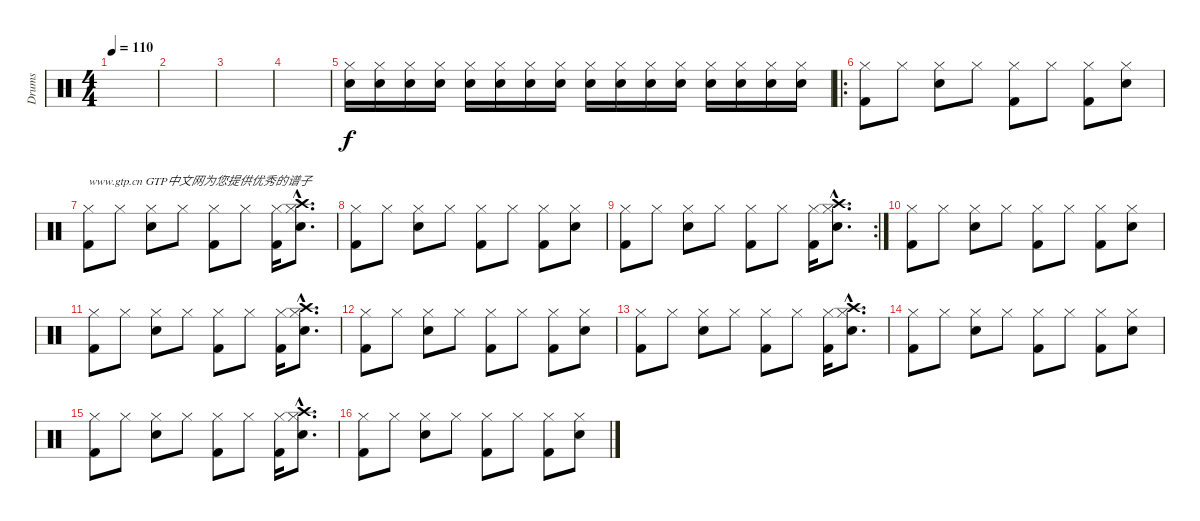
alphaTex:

\track ("Drums" "Drums") {instrument percussion}
\staff {score}
\articulation defaults
\ts (4 4)
\tempo 110
\clef neutral
\ks c
|
|
|
|
("Electric Snare (hit)" "Hi-Hat (closed)").16 ("Electric Snare (hit)" "Hi-Hat (closed)").16 ("Electric Snare (hit)" "Hi-Hat (closed)").16 ("Electric Snare (hit)" "Hi-Hat (closed)").16 ("Electric Snare (hit)" "Hi-Hat (closed)").16 ("Electric Snare (hit)" "Hi-Hat (closed)").16 ("Electric Snare (hit)" "Hi-Hat (closed)").16 ("Electric Snare (hit)" "Hi-Hat (closed)").16 ("Electric Snare (hit)" "Hi-Hat (closed)").16 ("Electric Snare (hit)" "Hi-Hat (closed)").16 ("Electric Snare (hit)" "Hi-Hat (closed)").16 ("Electric Snare (hit)" "Hi-Hat (closed)").16 ("Electric Snare (hit)" "Hi-Hat (closed)").16 ("Electric Snare (hit)" "Hi-Hat (closed)").16 ("Electric Snare (hit)" "Hi-Hat (closed)").16 ("Electric Snare (hit)" "Hi-Hat (closed)").16 |
\ro
("Kick (hit) 2" "Hi-Hat (closed)").8 "Hi-Hat (closed)".8 ("Electric Snare (hit)" "Hi-Hat (closed)").8 "Hi-Hat (closed)".8 ("Kick (hit) 2" "Hi-Hat (closed)").8 "Hi-Hat (closed)".8 ("Kick (hit) 2" "Hi-Hat (closed)").8 ("Electric Snare (hit)" "Hi-Hat (closed)").8 |
("Kick (hit) 2" "Hi-Hat (closed)").8{txt "www.gtp.cn GTP中文网为您提供优秀的谱子"} "Hi-Hat (closed)".8 ("Snare (hit) 2" "Hi-Hat (closed)").8 "Hi-Hat (closed)".8 ("Kick (hit) 2" "Hi-Hat (closed)").8 "Hi-Hat (closed)".8 ("Kick (hit) 2" "Hi-Hat (closed)").16 ("Snare (hit) 2"{hac} "Hi-Hat (closed)"{hac} "Crash high (hit)"{hac}).8{d} |
("Kick (hit) 2" "Hi-Hat (closed)").8 "Hi-Hat (closed)".8 ("Snare (hit) 2" "Hi-Hat (closed)").8 "Hi-Hat (closed)".8 ("Kick (hit) 2" "Hi-Hat (closed)").8 "Hi-Hat (closed)".8 ("Kick (hit) 2" "Hi-Hat (closed)").8 ("Snare (hit) 2" "Hi-Hat (closed)").8 |
\rc 2
("Kick (hit) 2" "Hi-Hat (closed)").8 "Hi-Hat (closed)".8 ("Snare (hit) 2" "Hi-Hat (closed)").8 "Hi-Hat (closed)".8 ("Kick (hit) 2" "Hi-Hat (closed)").8 "Hi-Hat (closed)".8 ("Kick (hit) 2" "Hi-Hat (closed)").16 ("Snare (hit) 2"{hac} "Hi-Hat (closed)"{hac} "Crash high (hit)"{hac}).8{d} |
("Kick (hit) 2" "Hi-Hat (closed)").8 "Hi-Hat (closed)".8 ("Snare (hit) 2" "Hi-Hat (closed)").8 "Hi-Hat (closed)".8 ("Kick (hit) 2" "Hi-Hat (closed)").8 "Hi-Hat (closed)".8 ("Kick (hit) 2" "Hi-Hat (closed)").8 ("Snare (hit) 2" "Hi-Hat (closed)").8 |
("Kick (hit) 2" "Hi-Hat (closed)").8 "Hi-Hat (closed)".8 ("Snare (hit) 2" "Hi-Hat (closed)").8 "Hi-Hat (closed)".8 ("Kick (hit) 2" "Hi-Hat (closed)").8 "Hi-Hat (closed)".8 ("Kick (hit) 2" "Hi-Hat (closed)").16 ("Snare (hit) 2"{hac} "Hi-Hat (closed)"{hac} "Crash high (hit)"{hac}).8{d} |
("Kick (hit) 2" "Hi-Hat (closed)").8 "Hi-Hat (closed)".8 ("Snare (hit) 2" "Hi-Hat (closed)").8 "Hi-Hat (closed)".8 ("Kick (hit) 2" "Hi-Hat (closed)").8 "Hi-Hat (closed)".8 ("Kick (hit) 2" "Hi-Hat (closed)").8 ("Snare (hit) 2" "Hi-Hat (closed)").8 |
("Kick (hit) 2" "Hi-Hat (closed)").8 "Hi-Hat (closed)".8 ("Snare (hit) 2" "Hi-Hat (closed)").8 "Hi-Hat (closed)".8 ("Kick (hit) 2" "Hi-Hat (closed)").8 "Hi-Hat (closed)".8 ("Kick (hit) 2" "Hi-Hat (closed)").16 ("Snare (hit) 2"{hac} "Hi-Hat (closed)"{hac} "Crash high (hit)"{hac}).8{d} |
("Kick (hit) 2" "Hi-Hat (closed)").8 "Hi-Hat (closed)".8 ("Snare (hit) 2" "Hi-Hat (closed)").8 "Hi-Hat (closed)".8 ("Kick (hit) 2" "Hi-Hat (closed)").8 "Hi-Hat (closed)".8 ("Kick (hit) 2" "Hi-Hat (closed)").8 ("Snare (hit) 2" "Hi-Hat (closed)").8 |
("Kick (hit) 2" "Hi-Hat (closed)").8 "Hi-Hat (closed)".8 ("Snare (hit) 2" "Hi-Hat (closed)").8 "Hi-Hat (closed)".8 ("Kick (hit) 2" "Hi-Hat (closed)").8 "Hi-Hat (closed)".8 ("Kick (hit) 2" "Hi-Hat (closed)").16 ("Snare (hit) 2"{hac} "Hi-Hat (closed)"{hac} "Crash high (hit)"{hac}).8{d} |
("Kick (hit) 2" "Hi-Hat (closed)").8 "Hi-Hat (closed)".8 ("Snare (hit) 2" "Hi-Hat (closed)").8 "Hi-Hat (closed)".8 ("Kick (hit) 2" "Hi-Hat (closed)").8 "Hi-Hat (closed)".8 ("Kick (hit) 2" "Hi-Hat (closed)").8 ("Snare (hit) 2" "Hi-Hat (closed)").8
